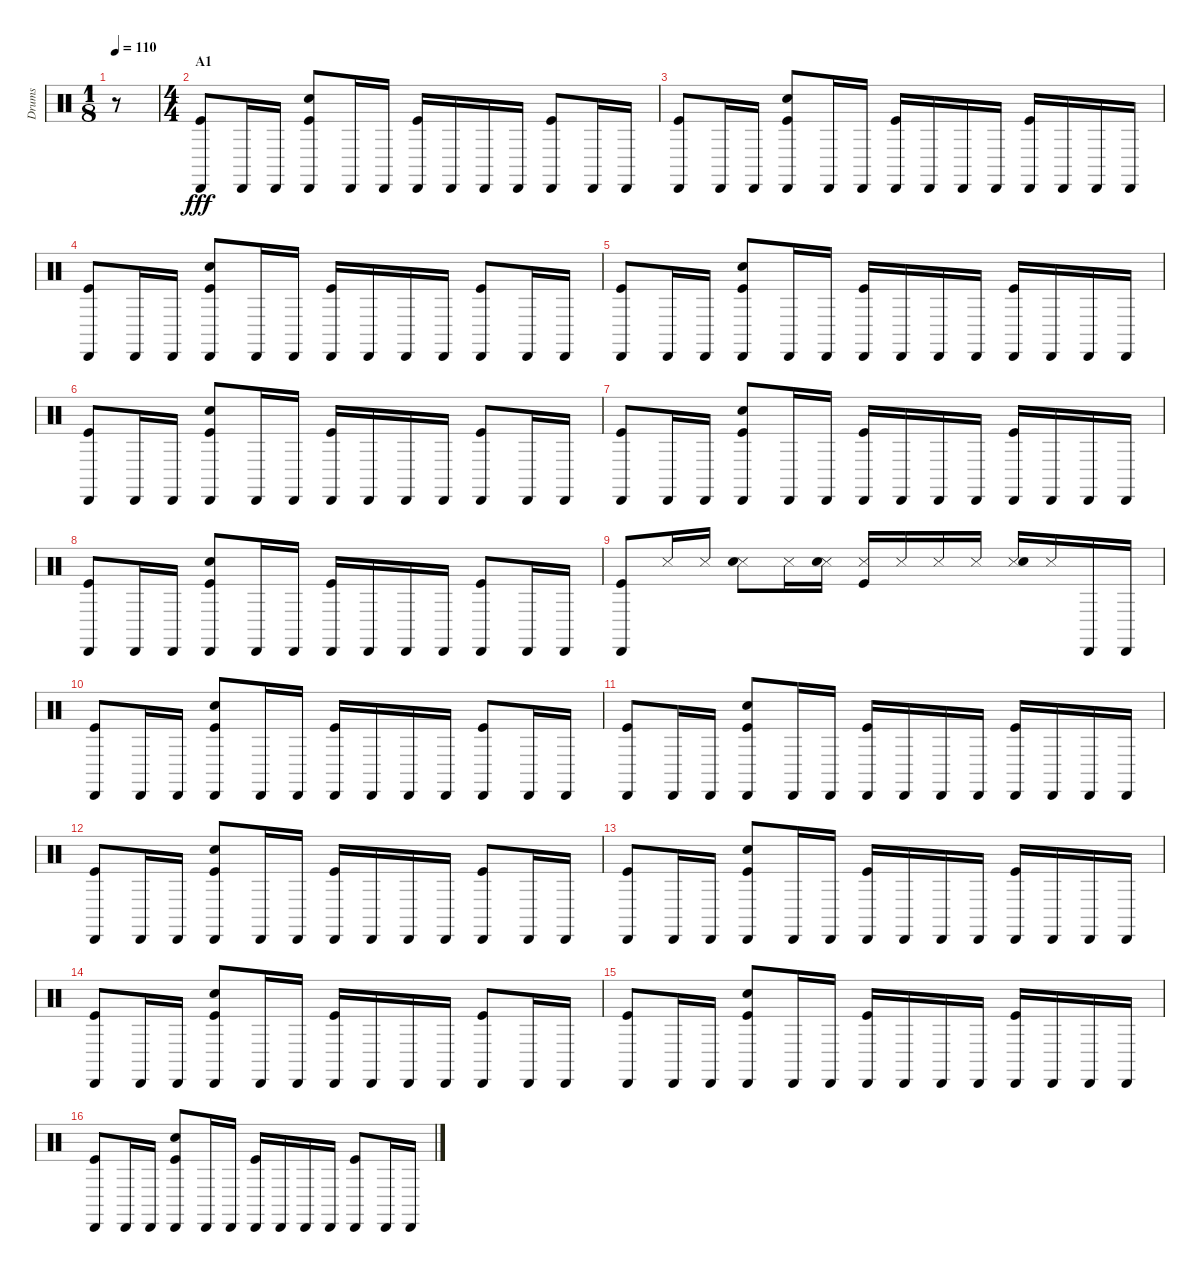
\track ("Drums" "Drums") {instrument percussion}
\staff {score}
\articulation defaults
\ts (1 8)
\tempo 110
\clef neutral
\ks c
r.8{dy fff} |
\ts (4 4)
\section ("" "A1")
("Cabasa (hit)" "Kick (hit)").8 "Cabasa (hit)".16 "Cabasa (hit)".16 ("Cabasa (hit)" "Snare (hit) 2" "Kick (hit)").8 "Cabasa (hit)".16 "Cabasa (hit)".16 ("Cabasa (hit)" "Kick (hit)").16 "Cabasa (hit)".16 "Cabasa (hit)".16 "Cabasa (hit)".16 ("Cabasa (hit)" "Kick (hit)").8 "Cabasa (hit)".16 "Cabasa (hit)".16 |
("Cabasa (hit)" "Kick (hit)").8 "Cabasa (hit)".16 "Cabasa (hit)".16 ("Cabasa (hit)" "Snare (hit) 2" "Kick (hit)").8 "Cabasa (hit)".16 "Cabasa (hit)".16 ("Cabasa (hit)" "Kick (hit)").16 "Cabasa (hit)".16 "Cabasa (hit)".16 "Cabasa (hit)".16 ("Cabasa (hit)" "Kick (hit)").16 "Cabasa (hit)".16 "Cabasa (hit)".16 "Cabasa (hit)".16 |
("Cabasa (hit)" "Kick (hit)").8 "Cabasa (hit)".16 "Cabasa (hit)".16 ("Cabasa (hit)" "Snare (hit) 2" "Kick (hit)").8 "Cabasa (hit)".16 "Cabasa (hit)".16 ("Cabasa (hit)" "Kick (hit)").16 "Cabasa (hit)".16 "Cabasa (hit)".16 "Cabasa (hit)".16 ("Cabasa (hit)" "Kick (hit)").8 "Cabasa (hit)".16 "Cabasa (hit)".16 |
("Cabasa (hit)" "Kick (hit)").8 "Cabasa (hit)".16 "Cabasa (hit)".16 ("Cabasa (hit)" "Snare (hit) 2" "Kick (hit)").8 "Cabasa (hit)".16 "Cabasa (hit)".16 ("Cabasa (hit)" "Kick (hit)").16 "Cabasa (hit)".16 "Cabasa (hit)".16 "Cabasa (hit)".16 ("Cabasa (hit)" "Kick (hit)").16 "Cabasa (hit)".16 "Cabasa (hit)".16 "Cabasa (hit)".16 |
("Cabasa (hit)" "Kick (hit)").8 "Cabasa (hit)".16 "Cabasa (hit)".16 ("Cabasa (hit)" "Snare (hit) 2" "Kick (hit)").8 "Cabasa (hit)".16 "Cabasa (hit)".16 ("Cabasa (hit)" "Kick (hit)").16 "Cabasa (hit)".16 "Cabasa (hit)".16 "Cabasa (hit)".16 ("Cabasa (hit)" "Kick (hit)").8 "Cabasa (hit)".16 "Cabasa (hit)".16 |
("Cabasa (hit)" "Kick (hit)").8 "Cabasa (hit)".16 "Cabasa (hit)".16 ("Cabasa (hit)" "Snare (hit) 2" "Kick (hit)").8 "Cabasa (hit)".16 "Cabasa (hit)".16 ("Cabasa (hit)" "Kick (hit)").16 "Cabasa (hit)".16 "Cabasa (hit)".16 "Cabasa (hit)".16 ("Cabasa (hit)" "Kick (hit)").16 "Cabasa (hit)".16 "Cabasa (hit)".16 "Cabasa (hit)".16 |
("Cabasa (hit)" "Kick (hit)").8 "Cabasa (hit)".16 "Cabasa (hit)".16 ("Cabasa (hit)" "Snare (hit) 2" "Kick (hit)").8 "Cabasa (hit)".16 "Cabasa (hit)".16 ("Cabasa (hit)" "Kick (hit)").16 "Cabasa (hit)".16 "Cabasa (hit)".16 "Cabasa (hit)".16 ("Cabasa (hit)" "Kick (hit)").8 "Cabasa (hit)".16 "Cabasa (hit)".16 |
("Cabasa (hit)" "Kick (hit)").8 "Snare (side stick) 3".16 "Snare (side stick) 3".16 ("Snare (side stick) 3" "Electric Snare (hit)").8 "Snare (side stick) 3".16 ("Snare (side stick) 3" "Electric Snare (hit)").16 ("Snare (side stick) 3" "Kick (hit)").16 "Snare (side stick) 3".16 "Snare (side stick) 3".16 "Snare (side stick) 3".16 ("Snare (side stick) 3" "Electric Snare (hit)").16 "Snare (side stick) 3".16 "Cabasa (hit)".16 "Cabasa (hit)".16 |
("Cabasa (hit)" "Kick (hit)").8 "Cabasa (hit)".16 "Cabasa (hit)".16 ("Cabasa (hit)" "Snare (hit) 2" "Kick (hit)").8 "Cabasa (hit)".16 "Cabasa (hit)".16 ("Cabasa (hit)" "Kick (hit)").16 "Cabasa (hit)".16 "Cabasa (hit)".16 "Cabasa (hit)".16 ("Cabasa (hit)" "Kick (hit)").8 "Cabasa (hit)".16 "Cabasa (hit)".16 |
("Cabasa (hit)" "Kick (hit)").8 "Cabasa (hit)".16 "Cabasa (hit)".16 ("Cabasa (hit)" "Snare (hit) 2" "Kick (hit)").8 "Cabasa (hit)".16 "Cabasa (hit)".16 ("Cabasa (hit)" "Kick (hit)").16 "Cabasa (hit)".16 "Cabasa (hit)".16 "Cabasa (hit)".16 ("Cabasa (hit)" "Kick (hit)").16 "Cabasa (hit)".16 "Cabasa (hit)".16 "Cabasa (hit)".16 |
("Cabasa (hit)" "Kick (hit)").8 "Cabasa (hit)".16 "Cabasa (hit)".16 ("Cabasa (hit)" "Snare (hit) 2" "Kick (hit)").8 "Cabasa (hit)".16 "Cabasa (hit)".16 ("Cabasa (hit)" "Kick (hit)").16 "Cabasa (hit)".16 "Cabasa (hit)".16 "Cabasa (hit)".16 ("Cabasa (hit)" "Kick (hit)").8 "Cabasa (hit)".16 "Cabasa (hit)".16 |
("Cabasa (hit)" "Kick (hit)").8 "Cabasa (hit)".16 "Cabasa (hit)".16 ("Cabasa (hit)" "Snare (hit) 2" "Kick (hit)").8 "Cabasa (hit)".16 "Cabasa (hit)".16 ("Cabasa (hit)" "Kick (hit)").16 "Cabasa (hit)".16 "Cabasa (hit)".16 "Cabasa (hit)".16 ("Cabasa (hit)" "Kick (hit)").16 "Cabasa (hit)".16 "Cabasa (hit)".16 "Cabasa (hit)".16 |
("Cabasa (hit)" "Kick (hit)").8 "Cabasa (hit)".16 "Cabasa (hit)".16 ("Cabasa (hit)" "Snare (hit) 2" "Kick (hit)").8 "Cabasa (hit)".16 "Cabasa (hit)".16 ("Cabasa (hit)" "Kick (hit)").16 "Cabasa (hit)".16 "Cabasa (hit)".16 "Cabasa (hit)".16 ("Cabasa (hit)" "Kick (hit)").8 "Cabasa (hit)".16 "Cabasa (hit)".16 |
("Cabasa (hit)" "Kick (hit)").8 "Cabasa (hit)".16 "Cabasa (hit)".16 ("Cabasa (hit)" "Snare (hit) 2" "Kick (hit)").8 "Cabasa (hit)".16 "Cabasa (hit)".16 ("Cabasa (hit)" "Kick (hit)").16 "Cabasa (hit)".16 "Cabasa (hit)".16 "Cabasa (hit)".16 ("Cabasa (hit)" "Kick (hit)").16 "Cabasa (hit)".16 "Cabasa (hit)".16 "Cabasa (hit)".16 |
("Cabasa (hit)" "Kick (hit)").8 "Cabasa (hit)".16 "Cabasa (hit)".16 ("Cabasa (hit)" "Snare (hit) 2" "Kick (hit)").8 "Cabasa (hit)".16 "Cabasa (hit)".16 ("Cabasa (hit)" "Kick (hit)").16 "Cabasa (hit)".16 "Cabasa (hit)".16 "Cabasa (hit)".16 ("Cabasa (hit)" "Kick (hit)").8 "Cabasa (hit)".16 "Cabasa (hit)".16
